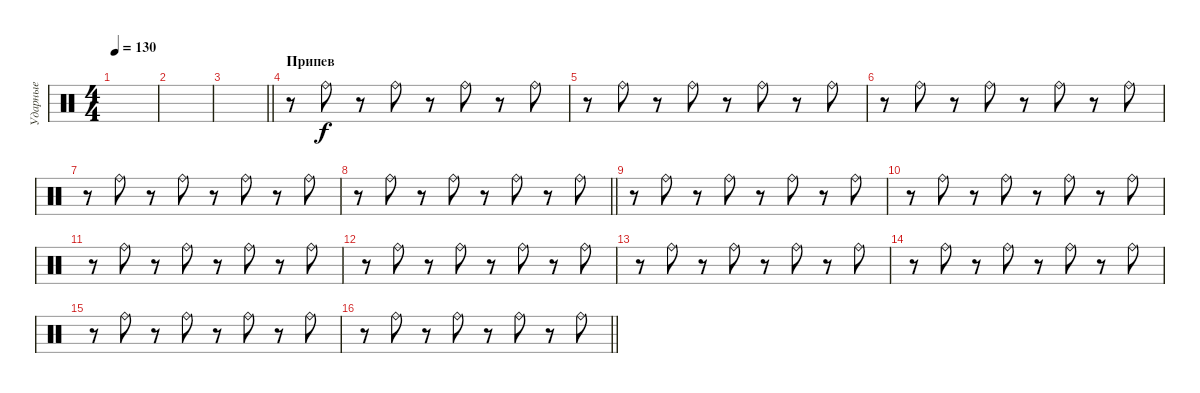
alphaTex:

\track ("Ударные" "Ударные") {instrument percussion}
\staff {score}
\articulation defaults
\ts (4 4)
\tempo 130
\clef neutral
\ks c
|
|
\barLineRight lightlight
|
\section ("" "Припев")
r.8 "Ride (bell)".8 r.8 "Ride (bell)".8 r.8 "Ride (bell)".8 r.8 "Ride (bell)".8 |
r.8 "Ride (bell)".8 r.8 "Ride (bell)".8 r.8 "Ride (bell)".8 r.8 "Ride (bell)".8 |
r.8 "Ride (bell)".8 r.8 "Ride (bell)".8 r.8 "Ride (bell)".8 r.8 "Ride (bell)".8 |
r.8 "Ride (bell)".8 r.8 "Ride (bell)".8 r.8 "Ride (bell)".8 r.8 "Ride (bell)".8 |
\barLineRight lightlight
r.8 "Ride (bell)".8 r.8 "Ride (bell)".8 r.8 "Ride (bell)".8 r.8 "Ride (bell)".8 |
r.8 "Ride (bell)".8 r.8 "Ride (bell)".8 r.8 "Ride (bell)".8 r.8 "Ride (bell)".8 |
r.8 "Ride (bell)".8 r.8 "Ride (bell)".8 r.8 "Ride (bell)".8 r.8 "Ride (bell)".8 |
r.8 "Ride (bell)".8 r.8 "Ride (bell)".8 r.8 "Ride (bell)".8 r.8 "Ride (bell)".8 |
r.8 "Ride (bell)".8 r.8 "Ride (bell)".8 r.8 "Ride (bell)".8 r.8 "Ride (bell)".8 |
r.8 "Ride (bell)".8 r.8 "Ride (bell)".8 r.8 "Ride (bell)".8 r.8 "Ride (bell)".8 |
r.8 "Ride (bell)".8 r.8 "Ride (bell)".8 r.8 "Ride (bell)".8 r.8 "Ride (bell)".8 |
r.8 "Ride (bell)".8 r.8 "Ride (bell)".8 r.8 "Ride (bell)".8 r.8 "Ride (bell)".8 |
\barLineRight lightlight
r.8 "Ride (bell)".8 r.8 "Ride (bell)".8 r.8 "Ride (bell)".8 r.8 "Ride (bell)".8
